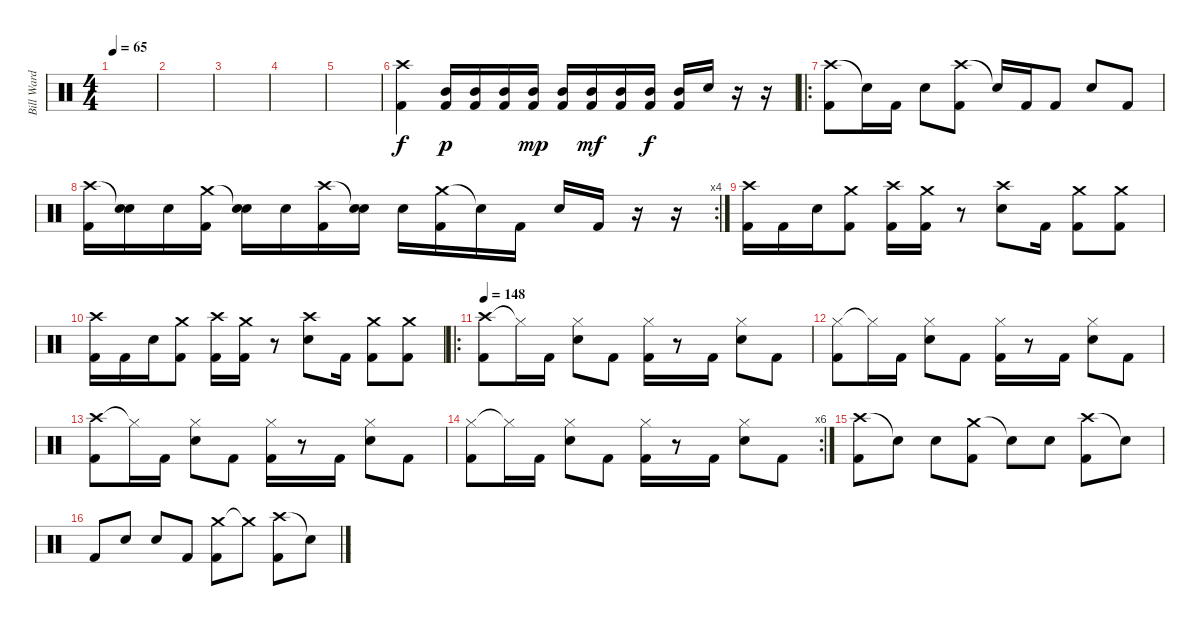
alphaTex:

\track ("Bill Ward" "Bill Ward") {instrument percussion}
\staff {score}
\articulation defaults
\ts (4 4)
\tempo 65
\clef neutral
\ks aminor
|
|
|
|
|
("Crash high (hit)" "Kick (hit) 2").4 ("Mid Tom (hit)" "Kick (hit) 2").16{dy p} ("Mid Tom (hit)" "Kick (hit) 2").16 ("Mid Tom (hit)" "Kick (hit) 2").16 ("Mid Tom (hit)" "Kick (hit) 2").16{dy mp} ("Mid Tom (hit)" "Kick (hit) 2").16 ("Mid Tom (hit)" "Kick (hit) 2").16{dy mf} ("Mid Tom (hit)" "Kick (hit) 2").16 ("Mid Tom (hit)" "Kick (hit) 2").16{dy f} ("Mid Tom (hit)" "Kick (hit) 2").16 "Snare (hit) 2".16 r.16 r.16 |
\ro
("Crash high (hit)" "Kick (hit) 2").8 "Snare (hit)"{t}.16 "Kick (hit) 2".16 "Snare (hit) 2".8 ("Crash high (hit)" "Kick (hit) 2").8 "Snare (hit)"{t}.16 "Kick (hit) 2".16 "Kick (hit) 2".8 "Snare (hit) 2".8 "Kick (hit) 2".8 |
\rc 4
("Crash high (hit)" "Kick (hit) 2").16 ("Snare (hit)"{t} "Snare (hit) 2").16 "Snare (hit) 2".16 ("Crash medium (hit)" "Kick (hit) 2").16 ("Snare (hit)"{t} "Snare (hit) 2").16 "Snare (hit) 2".16 ("Crash high (hit)" "Kick (hit) 2").16 ("Snare (hit)"{t} "Snare (hit) 2").16 "Snare (hit) 2".16 ("Crash medium (hit)" "Kick (hit) 2").16 "Snare (hit)"{t}.16 "Kick (hit) 2".16 "Snare (hit) 2".16 "Kick (hit) 2".16 r.16 r.16 |
("Crash high (hit)" "Kick (hit) 2").16 "Kick (hit) 2".16 "Snare (hit) 2".16 ("Crash medium (hit)" "Kick (hit) 2").8 ("Crash high (hit)" "Kick (hit) 2").16 ("Crash medium (hit)" "Kick (hit) 2").16 r.8 ("Crash high (hit)" "Snare (hit) 2").8 "Kick (hit) 2".16 ("Crash medium (hit)" "Kick (hit) 2").8 ("Crash medium (hit)" "Kick (hit) 2").8 |
("Crash high (hit)" "Kick (hit) 2").16 "Kick (hit) 2".16 "Snare (hit) 2".16 ("Crash medium (hit)" "Kick (hit) 2").8 ("Crash high (hit)" "Kick (hit) 2").16 ("Crash medium (hit)" "Kick (hit) 2").16 r.8 ("Crash high (hit)" "Snare (hit) 2").8 "Kick (hit) 2".16 ("Crash medium (hit)" "Kick (hit) 2").8 ("Crash medium (hit)" "Kick (hit) 2").8 |
\ro
\tempo 148
("Crash high (hit)" "Kick (hit) 2").8 "Hi-Hat (closed)"{t}.16 "Kick (hit) 2".16 ("Hi-Hat (closed)" "Snare (hit) 2").8 "Kick (hit) 2".8 ("Hi-Hat (closed)" "Kick (hit) 2").16 r.8 "Kick (hit) 2".16 ("Hi-Hat (closed)" "Snare (hit) 2").8 "Kick (hit) 2".8 |
("Hi-Hat (closed)" "Kick (hit) 2").8 "Hi-Hat (closed)"{t}.16 "Kick (hit) 2".16 ("Hi-Hat (closed)" "Snare (hit) 2").8 "Kick (hit) 2".8 ("Hi-Hat (closed)" "Kick (hit) 2").16 r.8 "Kick (hit) 2".16 ("Hi-Hat (closed)" "Snare (hit) 2").8 "Kick (hit) 2".8 |
("Crash high (hit)" "Kick (hit) 2").8 "Hi-Hat (closed)"{t}.16 "Kick (hit) 2".16 ("Hi-Hat (closed)" "Snare (hit) 2").8 "Kick (hit) 2".8 ("Hi-Hat (closed)" "Kick (hit) 2").16 r.8 "Kick (hit) 2".16 ("Hi-Hat (closed)" "Snare (hit) 2").8 "Kick (hit) 2".8 |
\rc 6
("Hi-Hat (closed)" "Kick (hit) 2").8 "Hi-Hat (closed)"{t}.16 "Kick (hit) 2".16 ("Hi-Hat (closed)" "Snare (hit) 2").8 "Kick (hit) 2".8 ("Hi-Hat (closed)" "Kick (hit) 2").16 r.8 "Kick (hit) 2".16 ("Hi-Hat (closed)" "Snare (hit) 2").8 "Kick (hit) 2".8 |
("Crash high (hit)" "Kick (hit) 2").8 "Snare (hit)"{t}.8 "Snare (hit) 2".8 ("Crash medium (hit)" "Kick (hit) 2").8 "Snare (hit)"{t}.8 "Snare (hit) 2".8 ("Crash high (hit)" "Kick (hit) 2").8 "Snare (hit)"{t}.8 |
"Kick (hit) 2".8 "Snare (hit) 2".8 "Snare (hit) 2".8 "Kick (hit) 2".8 ("Crash medium (hit)" "Kick (hit) 2").8 "Crash medium (hit)"{t}.8 ("Crash high (hit)" "Kick (hit) 2").8 "Snare (hit)"{t}.8
